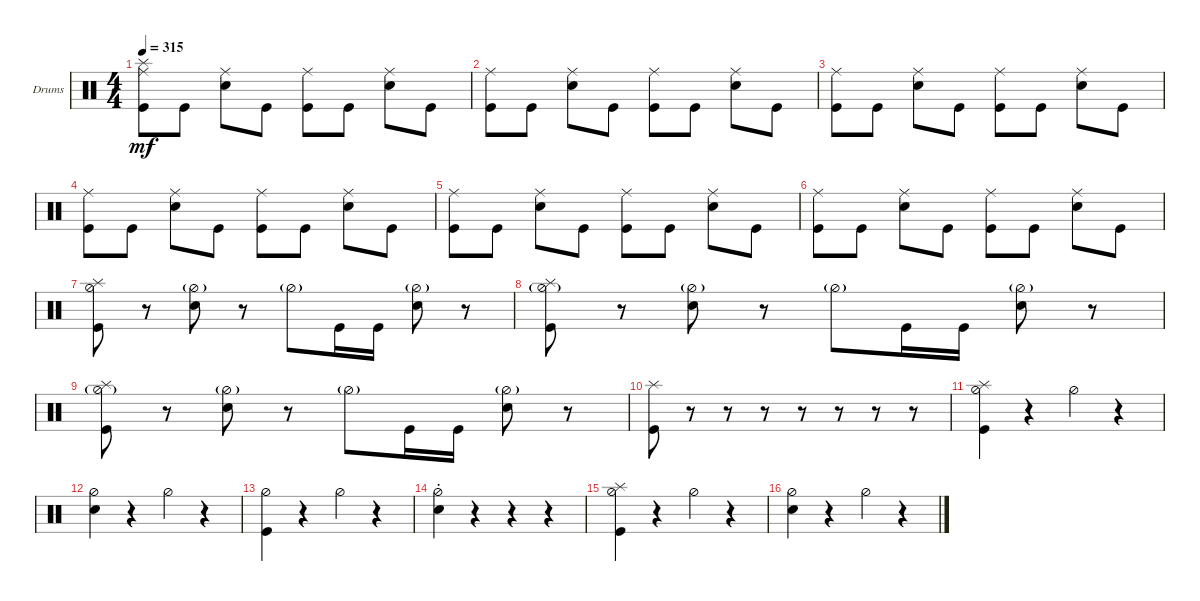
\bracketExtendMode groupsimilarinstruments
\firstSystemTrackNameOrientation horizontal
\otherSystemsTrackNameOrientation horizontal
\track ("Drumkit" "Drums") {instrument percussion}
\staff {score}
\articulation defaults
\ts (4 4)
\tempo 315
\clef neutral
\ks c
("Kick (hit)" "Splash (hit)" "Ride (middle)").8{dy mf} "Kick (hit)".8 ("Snare (hit) 2" "Ride (middle)").8 "Kick (hit)".8 ("Kick (hit)" "Ride (middle)").8 "Kick (hit)".8 ("Snare (hit) 2" "Ride (middle)").8 "Kick (hit)".8 |
("Kick (hit)" "Ride (middle)").8 "Kick (hit)".8 ("Snare (hit) 2" "Ride (middle)").8 "Kick (hit)".8 ("Kick (hit)" "Ride (middle)").8 "Kick (hit)".8 ("Snare (hit) 2" "Ride (middle)").8 "Kick (hit)".8 |
("Kick (hit)" "Ride (middle)").8 "Kick (hit)".8 ("Snare (hit) 2" "Ride (middle)").8 "Kick (hit)".8 ("Kick (hit)" "Ride (middle)").8 "Kick (hit)".8 ("Snare (hit) 2" "Ride (middle)").8 "Kick (hit)".8 |
("Kick (hit)" "Ride (middle)").8 "Kick (hit)".8 ("Snare (hit) 2" "Ride (middle)").8 "Kick (hit)".8 ("Kick (hit)" "Ride (middle)").8 "Kick (hit)".8 ("Snare (hit) 2" "Ride (middle)").8 "Kick (hit)".8 |
("Kick (hit)" "Ride (middle)").8 "Kick (hit)".8 ("Snare (hit) 2" "Ride (middle)").8 "Kick (hit)".8 ("Kick (hit)" "Ride (middle)").8 "Kick (hit)".8 ("Snare (hit) 2" "Ride (middle)").8 "Kick (hit)".8 |
("Kick (hit)" "Ride (middle)").8 "Kick (hit)".8 ("Snare (hit) 2" "Ride (middle)").8 "Kick (hit)".8 ("Kick (hit)" "Ride (middle)").8 "Kick (hit)".8 ("Snare (hit) 2" "Ride (middle)").8 "Kick (hit)".8 |
("Kick (hit)" "Splash (hit)" "Hi-Hat (half)").8 r.8 ("Snare (hit) 2" "Hi-Hat (half)"{g}).8 r.8 "Hi-Hat (half)"{g}.8 "Kick (hit)".16 "Kick (hit)".16 ("Snare (hit) 2" "Hi-Hat (half)"{g}).8 r.8 |
("Kick (hit)" "Splash (hit)" "Hi-Hat (half)"{g}).8 r.8 ("Snare (hit) 2" "Hi-Hat (half)"{g}).8 r.8 "Hi-Hat (half)"{g}.8 "Kick (hit)".16 "Kick (hit)".16 ("Snare (hit) 2" "Hi-Hat (half)"{g}).8 r.8 |
("Kick (hit)" "Splash (hit)" "Hi-Hat (half)"{g}).8 r.8 ("Snare (hit) 2" "Hi-Hat (half)"{g}).8 r.8 "Hi-Hat (half)"{g}.8 "Kick (hit)".16 "Kick (hit)".16 ("Snare (hit) 2" "Hi-Hat (half)"{g}).8 r.8 |
("Kick (hit)" "Splash (hit)").8 r.8 r.8 r.8 r.8 r.8 r.8 r.8 |
("Kick (hit)" "Hi-Hat (half)" "Splash (hit)").4 r.4 "Hi-Hat (half)".4 r.4 |
("Snare (hit) 2" "Hi-Hat (half)").4 r.4 "Hi-Hat (half)".4 r.4 |
("Kick (hit)" "Hi-Hat (half)").4 r.4 "Hi-Hat (half)".4 r.4 |
("Snare (hit) 2"{st} "Hi-Hat (half)").4 r.4 r.4 r.4 |
("Kick (hit)" "Hi-Hat (half)" "Splash (hit)").4 r.4 "Hi-Hat (half)".4 r.4 |
("Snare (hit) 2" "Hi-Hat (half)").4 r.4 "Hi-Hat (half)".4 r.4
